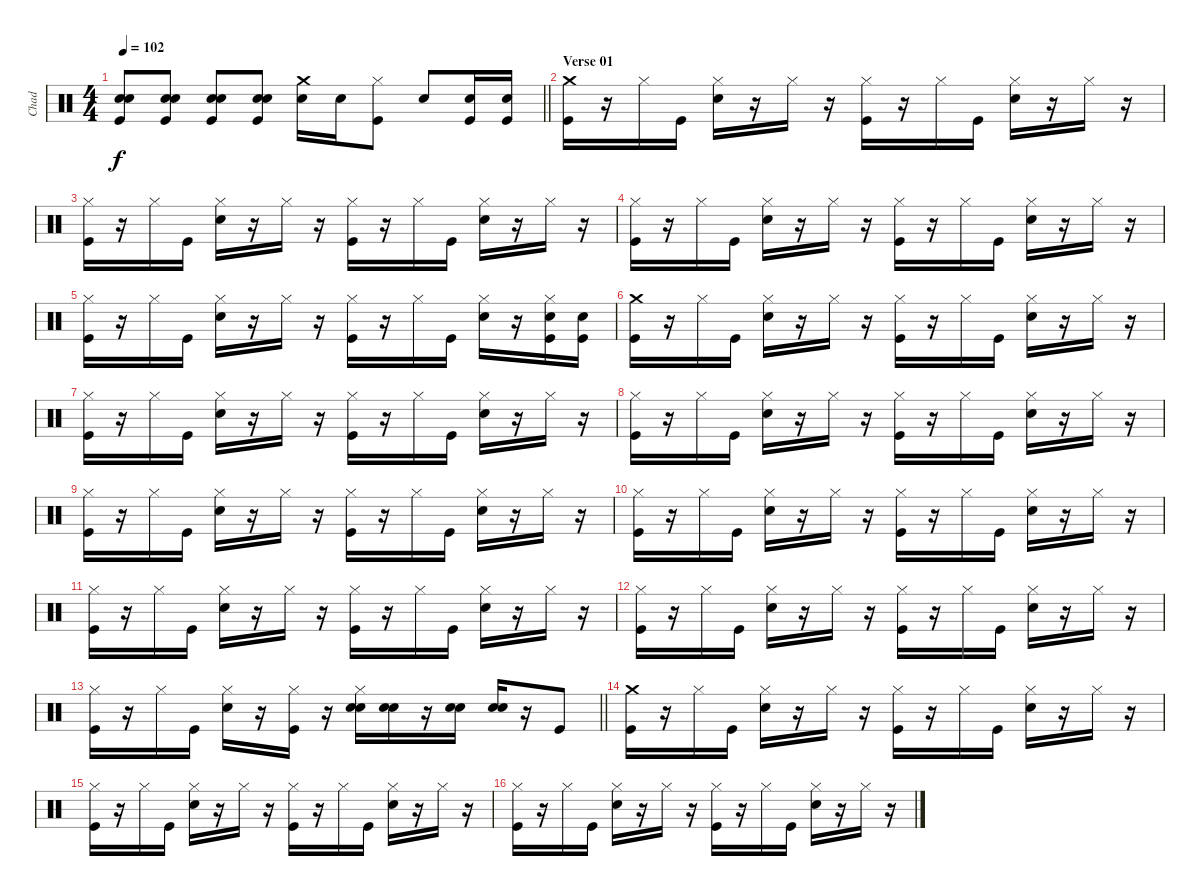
\track ("Chad" "Chad") {instrument percussion}
\staff {score}
\articulation defaults
\ts (4 4)
\tempo 102
\clef neutral
\barLineRight lightlight
\ks c
("Snare (hit) 2" "Electric Snare (hit)" "Kick (hit)").8{dy f} ("Snare (hit) 2" "Electric Snare (hit)" "Kick (hit)").8 ("Snare (hit) 2" "Electric Snare (hit)" "Kick (hit)").8 ("Snare (hit) 2" "Electric Snare (hit)" "Kick (hit)").8 ("Crash medium (hit)" "Electric Snare (hit)").16 "Electric Snare (hit)".16 ("Hi-Hat (closed)" "Kick (hit)").8 "Electric Snare (hit)".8 ("Electric Snare (hit)" "Kick (hit)").16 ("Electric Snare (hit)" "Kick (hit)").16 |
\section ("" "Verse 01")
("Crash medium (hit)" "Kick (hit)").16 r.16 "Hi-Hat (closed)".16 "Kick (hit)".16 ("Hi-Hat (closed)" "Snare (hit) 2").16 r.16 "Hi-Hat (closed)".16 r.16 ("Hi-Hat (closed)" "Kick (hit)").16 r.16 "Hi-Hat (closed)".16 "Kick (hit)".16 ("Hi-Hat (closed)" "Snare (hit) 2").16 r.16 "Hi-Hat (closed)".16 r.16 |
("Hi-Hat (closed)" "Kick (hit)").16 r.16 "Hi-Hat (closed)".16 "Kick (hit)".16 ("Hi-Hat (closed)" "Snare (hit) 2").16 r.16 "Hi-Hat (closed)".16 r.16 ("Hi-Hat (closed)" "Kick (hit)").16 r.16 "Hi-Hat (closed)".16 "Kick (hit)".16 ("Hi-Hat (closed)" "Snare (hit) 2").16 r.16 "Hi-Hat (closed)".16 r.16 |
("Hi-Hat (closed)" "Kick (hit)").16 r.16 "Hi-Hat (closed)".16 "Kick (hit)".16 ("Hi-Hat (closed)" "Snare (hit) 2").16 r.16 "Hi-Hat (closed)".16 r.16 ("Hi-Hat (closed)" "Kick (hit)").16 r.16 "Hi-Hat (closed)".16 "Kick (hit)".16 ("Hi-Hat (closed)" "Snare (hit) 2").16 r.16 "Hi-Hat (closed)".16 r.16 |
("Hi-Hat (closed)" "Kick (hit)").16 r.16 "Hi-Hat (closed)".16 "Kick (hit)".16 ("Hi-Hat (closed)" "Snare (hit) 2").16 r.16 "Hi-Hat (closed)".16 r.16 ("Hi-Hat (closed)" "Kick (hit)").16 r.16 "Hi-Hat (closed)".16 "Kick (hit)".16 ("Hi-Hat (closed)" "Snare (hit) 2").16 r.16 ("Hi-Hat (closed)" "Snare (hit) 2" "Kick (hit)").16 ("Snare (hit) 2" "Kick (hit)").16 |
("Crash medium (hit)" "Kick (hit)").16 r.16 "Hi-Hat (closed)".16 "Kick (hit)".16 ("Hi-Hat (closed)" "Snare (hit) 2").16 r.16 "Hi-Hat (closed)".16 r.16 ("Hi-Hat (closed)" "Kick (hit)").16 r.16 "Hi-Hat (closed)".16 "Kick (hit)".16 ("Hi-Hat (closed)" "Snare (hit) 2").16 r.16 "Hi-Hat (closed)".16 r.16 |
("Hi-Hat (closed)" "Kick (hit)").16 r.16 "Hi-Hat (closed)".16 "Kick (hit)".16 ("Hi-Hat (closed)" "Snare (hit) 2").16 r.16 "Hi-Hat (closed)".16 r.16 ("Hi-Hat (closed)" "Kick (hit)").16 r.16 "Hi-Hat (closed)".16 "Kick (hit)".16 ("Hi-Hat (closed)" "Snare (hit) 2").16 r.16 "Hi-Hat (closed)".16 r.16 |
("Hi-Hat (closed)" "Kick (hit)").16 r.16 "Hi-Hat (closed)".16 "Kick (hit)".16 ("Hi-Hat (closed)" "Snare (hit) 2").16 r.16 "Hi-Hat (closed)".16 r.16 ("Hi-Hat (closed)" "Kick (hit)").16 r.16 "Hi-Hat (closed)".16 "Kick (hit)".16 ("Hi-Hat (closed)" "Snare (hit) 2").16 r.16 "Hi-Hat (closed)".16 r.16 |
("Hi-Hat (closed)" "Kick (hit)").16 r.16 "Hi-Hat (closed)".16 "Kick (hit)".16 ("Hi-Hat (closed)" "Snare (hit) 2").16 r.16 "Hi-Hat (closed)".16 r.16 ("Hi-Hat (closed)" "Kick (hit)").16 r.16 "Hi-Hat (closed)".16 "Kick (hit)".16 ("Hi-Hat (closed)" "Snare (hit) 2").16 r.16 "Hi-Hat (closed)".16 r.16 |
("Hi-Hat (closed)" "Kick (hit)").16 r.16 "Hi-Hat (closed)".16 "Kick (hit)".16 ("Hi-Hat (closed)" "Snare (hit) 2").16 r.16 "Hi-Hat (closed)".16 r.16 ("Hi-Hat (closed)" "Kick (hit)").16 r.16 "Hi-Hat (closed)".16 "Kick (hit)".16 ("Hi-Hat (closed)" "Snare (hit) 2").16 r.16 "Hi-Hat (closed)".16 r.16 |
("Hi-Hat (closed)" "Kick (hit)").16 r.16 "Hi-Hat (closed)".16 "Kick (hit)".16 ("Hi-Hat (closed)" "Snare (hit) 2").16 r.16 "Hi-Hat (closed)".16 r.16 ("Hi-Hat (closed)" "Kick (hit)").16 r.16 "Hi-Hat (closed)".16 "Kick (hit)".16 ("Hi-Hat (closed)" "Snare (hit) 2").16 r.16 "Hi-Hat (closed)".16 r.16 |
("Hi-Hat (closed)" "Kick (hit)").16 r.16 "Hi-Hat (closed)".16 "Kick (hit)".16 ("Hi-Hat (closed)" "Snare (hit) 2").16 r.16 "Hi-Hat (closed)".16 r.16 ("Hi-Hat (closed)" "Kick (hit)").16 r.16 "Hi-Hat (closed)".16 "Kick (hit)".16 ("Hi-Hat (closed)" "Snare (hit) 2").16 r.16 "Hi-Hat (closed)".16 r.16 |
\barLineRight lightlight
("Hi-Hat (closed)" "Kick (hit)").16 r.16 "Hi-Hat (closed)".16 "Kick (hit)".16 ("Hi-Hat (closed)" "Snare (hit) 2").16 r.16 ("Hi-Hat (closed)" "Kick (hit)").16 r.16 ("Hi-Hat (closed)" "Snare (hit) 2" "Electric Snare (hit)").16 ("Snare (hit) 2" "Electric Snare (hit)").16 r.16 ("Snare (hit) 2" "Electric Snare (hit)").16 ("Snare (hit) 2" "Electric Snare (hit)").16 r.16 "Kick (hit)".8 |
("Crash medium (hit)" "Kick (hit)").16 r.16 "Hi-Hat (closed)".16 "Kick (hit)".16 ("Hi-Hat (closed)" "Snare (hit) 2").16 r.16 "Hi-Hat (closed)".16 r.16 ("Hi-Hat (closed)" "Kick (hit)").16 r.16 "Hi-Hat (closed)".16 "Kick (hit)".16 ("Hi-Hat (closed)" "Snare (hit) 2").16 r.16 "Hi-Hat (closed)".16 r.16 |
("Hi-Hat (closed)" "Kick (hit)").16 r.16 "Hi-Hat (closed)".16 "Kick (hit)".16 ("Hi-Hat (closed)" "Snare (hit) 2").16 r.16 "Hi-Hat (closed)".16 r.16 ("Hi-Hat (closed)" "Kick (hit)").16 r.16 "Hi-Hat (closed)".16 "Kick (hit)".16 ("Hi-Hat (closed)" "Snare (hit) 2").16 r.16 "Hi-Hat (closed)".16 r.16 |
("Hi-Hat (closed)" "Kick (hit)").16 r.16 "Hi-Hat (closed)".16 "Kick (hit)".16 ("Hi-Hat (closed)" "Snare (hit) 2").16 r.16 "Hi-Hat (closed)".16 r.16 ("Hi-Hat (closed)" "Kick (hit)").16 r.16 "Hi-Hat (closed)".16 "Kick (hit)".16 ("Hi-Hat (closed)" "Snare (hit) 2").16 r.16 "Hi-Hat (closed)".16 r.16
